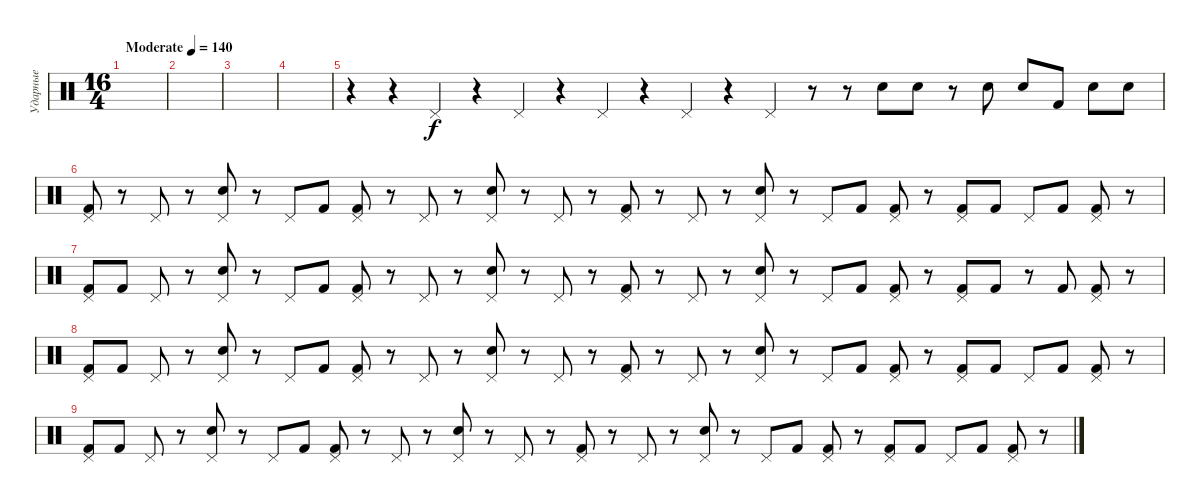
\track ("Ударные" "Ударные") {instrument percussion}
\staff {score}
\articulation defaults
\ts (16 4)
\tempo (140 "Moderate")
\clef neutral
\ks c
|
|
|
|
r.4 r.4 "Pedal Hi-Hat (hit)".4 r.4 "Pedal Hi-Hat (hit)".4 r.4 "Pedal Hi-Hat (hit)".4 r.4 "Pedal Hi-Hat (hit)".4 r.4 "Pedal Hi-Hat (hit)".4 r.8 r.8 "Electric Snare (hit)".8 "Electric Snare (hit)".8 r.8 "Electric Snare (hit)".8 "Electric Snare (hit)".8 "Kick (hit) 2".8 "Electric Snare (hit)".8 "Electric Snare (hit)".8 |
("Pedal Hi-Hat (hit)" "Kick (hit) 2").8 r.8 "Pedal Hi-Hat (hit)".8 r.8 ("Pedal Hi-Hat (hit)" "Electric Snare (hit)").8 r.8 "Pedal Hi-Hat (hit)".8 "Kick (hit) 2".8 ("Pedal Hi-Hat (hit)" "Kick (hit) 2").8 r.8 "Pedal Hi-Hat (hit)".8 r.8 ("Pedal Hi-Hat (hit)" "Electric Snare (hit)").8 r.8 "Pedal Hi-Hat (hit)".8 r.8 ("Pedal Hi-Hat (hit)" "Kick (hit) 2").8 r.8 "Pedal Hi-Hat (hit)".8 r.8 ("Pedal Hi-Hat (hit)" "Electric Snare (hit)").8 r.8 "Pedal Hi-Hat (hit)".8 "Kick (hit) 2".8 ("Pedal Hi-Hat (hit)" "Kick (hit) 2").8 r.8 ("Pedal Hi-Hat (hit)" "Kick (hit) 2").8 "Kick (hit) 2".8 "Pedal Hi-Hat (hit)".8 "Kick (hit) 2".8 ("Pedal Hi-Hat (hit)" "Kick (hit) 2").8 r.8 |
("Pedal Hi-Hat (hit)" "Kick (hit) 2").8 "Kick (hit) 2".8 "Pedal Hi-Hat (hit)".8 r.8 ("Pedal Hi-Hat (hit)" "Electric Snare (hit)").8 r.8 "Pedal Hi-Hat (hit)".8 "Kick (hit) 2".8 ("Pedal Hi-Hat (hit)" "Kick (hit) 2").8 r.8 "Pedal Hi-Hat (hit)".8 r.8 ("Pedal Hi-Hat (hit)" "Electric Snare (hit)").8 r.8 "Pedal Hi-Hat (hit)".8 r.8 ("Pedal Hi-Hat (hit)" "Kick (hit) 2").8 r.8 "Pedal Hi-Hat (hit)".8 r.8 ("Pedal Hi-Hat (hit)" "Electric Snare (hit)").8 r.8 "Pedal Hi-Hat (hit)".8 "Kick (hit) 2".8 ("Pedal Hi-Hat (hit)" "Kick (hit) 2").8 r.8 ("Pedal Hi-Hat (hit)" "Kick (hit) 2").8 "Kick (hit) 2".8 r.8 "Kick (hit) 2".8 ("Pedal Hi-Hat (hit)" "Kick (hit) 2").8 r.8 |
("Pedal Hi-Hat (hit)" "Kick (hit) 2").8 "Kick (hit) 2".8 "Pedal Hi-Hat (hit)".8 r.8 ("Pedal Hi-Hat (hit)" "Electric Snare (hit)").8 r.8 "Pedal Hi-Hat (hit)".8 "Kick (hit) 2".8 ("Pedal Hi-Hat (hit)" "Kick (hit) 2").8 r.8 "Pedal Hi-Hat (hit)".8 r.8 ("Pedal Hi-Hat (hit)" "Electric Snare (hit)").8 r.8 "Pedal Hi-Hat (hit)".8 r.8 ("Pedal Hi-Hat (hit)" "Kick (hit) 2").8 r.8 "Pedal Hi-Hat (hit)".8 r.8 ("Pedal Hi-Hat (hit)" "Electric Snare (hit)").8 r.8 "Pedal Hi-Hat (hit)".8 "Kick (hit) 2".8 ("Pedal Hi-Hat (hit)" "Kick (hit) 2").8 r.8 ("Pedal Hi-Hat (hit)" "Kick (hit) 2").8 "Kick (hit) 2".8 "Pedal Hi-Hat (hit)".8 "Kick (hit) 2".8 ("Pedal Hi-Hat (hit)" "Kick (hit) 2").8 r.8 |
("Pedal Hi-Hat (hit)" "Kick (hit) 2").8 "Kick (hit) 2".8 "Pedal Hi-Hat (hit)".8 r.8 ("Pedal Hi-Hat (hit)" "Electric Snare (hit)").8 r.8 "Pedal Hi-Hat (hit)".8 "Kick (hit) 2".8 ("Pedal Hi-Hat (hit)" "Kick (hit) 2").8 r.8 "Pedal Hi-Hat (hit)".8 r.8 ("Pedal Hi-Hat (hit)" "Electric Snare (hit)").8 r.8 "Pedal Hi-Hat (hit)".8 r.8 ("Pedal Hi-Hat (hit)" "Kick (hit) 2").8 r.8 "Pedal Hi-Hat (hit)".8 r.8 ("Pedal Hi-Hat (hit)" "Electric Snare (hit)").8 r.8 "Pedal Hi-Hat (hit)".8 "Kick (hit) 2".8 ("Pedal Hi-Hat (hit)" "Kick (hit) 2").8 r.8 ("Pedal Hi-Hat (hit)" "Kick (hit) 2").8 "Kick (hit) 2".8 "Pedal Hi-Hat (hit)".8 "Kick (hit) 2".8 ("Pedal Hi-Hat (hit)" "Kick (hit) 2").8 r.8
